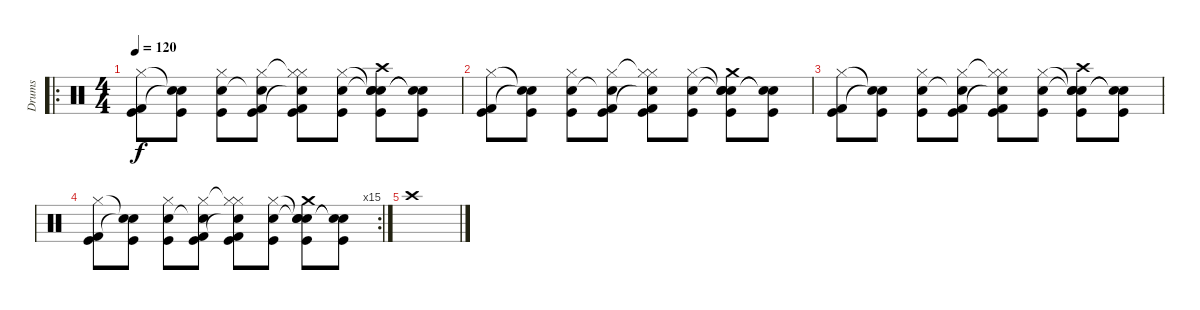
\track ("Drums" "Drums") {instrument percussion}
\staff {score}
\articulation defaults
\ro
\ts (4 4)
\tempo 120
\clef neutral
\ks c
("Hi-Hat (closed)" "Kick (hit) 2" "Kick (hit)").8{dy f} ("Snare (hit)"{t} "Snare (hit)"{t} "Kick (hit)").8 ("Hi-Hat (closed)" "Electric Snare (hit)" "Kick (hit)").8 ("Hi-Hat (closed)" "Snare (hit)"{t} "Kick (hit) 2" "Kick (hit)").8 ("Hi-Hat (closed)"{t} "Hi-Hat (closed)" "Snare (hit)"{t} "Kick (hit) 2" "Kick (hit)").8 ("Hi-Hat (closed)" "Electric Snare (hit)" "Kick (hit)").8 ("Snare (hit)"{t} "Snare (hit)"{t} "Crash high (hit)" "Electric Snare (hit)" "Kick (hit)").8 ("Snare (hit)"{t} "Snare (hit)"{t} "Kick (hit)").8 |
("Hi-Hat (closed)" "Kick (hit) 2" "Kick (hit)").8 ("Snare (hit)"{t} "Snare (hit)"{t} "Kick (hit)").8 ("Hi-Hat (closed)" "Electric Snare (hit)" "Kick (hit)").8 ("Hi-Hat (closed)" "Snare (hit)"{t} "Kick (hit) 2" "Kick (hit)").8 ("Hi-Hat (closed)"{t} "Hi-Hat (closed)" "Snare (hit)"{t} "Kick (hit) 2" "Kick (hit)").8 ("Hi-Hat (closed)" "Electric Snare (hit)" "Kick (hit)").8 ("Snare (hit)"{t} "Snare (hit)"{t} "Crash medium (hit)" "Electric Snare (hit)" "Kick (hit)").8 ("Snare (hit)"{t} "Snare (hit)"{t} "Kick (hit)").8 |
("Hi-Hat (closed)" "Kick (hit) 2" "Kick (hit)").8 ("Snare (hit)"{t} "Snare (hit)"{t} "Kick (hit)").8 ("Hi-Hat (closed)" "Electric Snare (hit)" "Kick (hit)").8 ("Hi-Hat (closed)" "Snare (hit)"{t} "Kick (hit) 2" "Kick (hit)").8 ("Hi-Hat (closed)"{t} "Hi-Hat (closed)" "Snare (hit)"{t} "Kick (hit) 2" "Kick (hit)").8 ("Hi-Hat (closed)" "Electric Snare (hit)" "Kick (hit)").8 ("Snare (hit)"{t} "Snare (hit)"{t} "Crash high (hit)" "Electric Snare (hit)" "Kick (hit)").8 ("Snare (hit)"{t} "Snare (hit)"{t} "Kick (hit)").8 |
\rc 15
("Hi-Hat (closed)" "Kick (hit) 2" "Kick (hit)").8 ("Snare (hit)"{t} "Snare (hit)"{t} "Kick (hit)").8 ("Hi-Hat (closed)" "Electric Snare (hit)" "Kick (hit)").8 ("Hi-Hat (closed)" "Snare (hit)"{t} "Kick (hit) 2" "Kick (hit)").8 ("Hi-Hat (closed)"{t} "Hi-Hat (closed)" "Snare (hit)"{t} "Kick (hit) 2" "Kick (hit)").8 ("Hi-Hat (closed)" "Electric Snare (hit)" "Kick (hit)").8 ("Snare (hit)"{t} "Snare (hit)"{t} "Crash medium (hit)" "Electric Snare (hit)" "Kick (hit)").8 ("Snare (hit)"{t} "Snare (hit)"{t} "Kick (hit)").8 |
"Crash high (hit)".1
